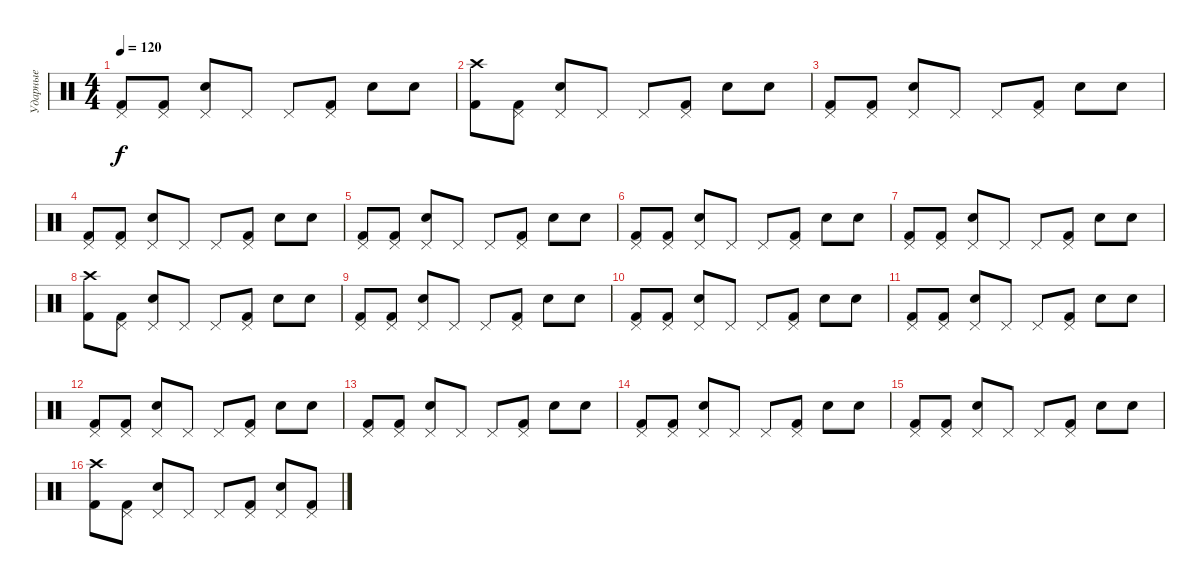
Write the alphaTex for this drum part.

\track ("Ударные" "Ударные") {instrument percussion}
\staff {score}
\articulation defaults
\ts (4 4)
\tempo 120
\clef neutral
\ks c
("Pedal Hi-Hat (hit)" "Kick (hit) 2").8{dy f} ("Pedal Hi-Hat (hit)" "Kick (hit) 2").8 ("Pedal Hi-Hat (hit)" "Snare (hit) 2").8 "Pedal Hi-Hat (hit)".8 "Pedal Hi-Hat (hit)".8 ("Pedal Hi-Hat (hit)" "Kick (hit) 2").8 "Snare (hit) 2".8 "Snare (hit) 2".8 |
("Crash high (hit)" "Kick (hit) 2").8 ("Pedal Hi-Hat (hit)" "Kick (hit) 2").8 ("Pedal Hi-Hat (hit)" "Snare (hit) 2").8 "Pedal Hi-Hat (hit)".8 "Pedal Hi-Hat (hit)".8 ("Pedal Hi-Hat (hit)" "Kick (hit) 2").8 "Snare (hit) 2".8 "Snare (hit) 2".8 |
("Pedal Hi-Hat (hit)" "Kick (hit) 2").8 ("Pedal Hi-Hat (hit)" "Kick (hit) 2").8 ("Pedal Hi-Hat (hit)" "Snare (hit) 2").8 "Pedal Hi-Hat (hit)".8 "Pedal Hi-Hat (hit)".8 ("Pedal Hi-Hat (hit)" "Kick (hit) 2").8 "Snare (hit) 2".8 "Snare (hit) 2".8 |
("Pedal Hi-Hat (hit)" "Kick (hit) 2").8 ("Pedal Hi-Hat (hit)" "Kick (hit) 2").8 ("Pedal Hi-Hat (hit)" "Snare (hit) 2").8 "Pedal Hi-Hat (hit)".8 "Pedal Hi-Hat (hit)".8 ("Pedal Hi-Hat (hit)" "Kick (hit) 2").8 "Snare (hit) 2".8 "Snare (hit) 2".8 |
("Pedal Hi-Hat (hit)" "Kick (hit) 2").8 ("Pedal Hi-Hat (hit)" "Kick (hit) 2").8 ("Pedal Hi-Hat (hit)" "Snare (hit) 2").8 "Pedal Hi-Hat (hit)".8 "Pedal Hi-Hat (hit)".8 ("Pedal Hi-Hat (hit)" "Kick (hit) 2").8 "Snare (hit) 2".8 "Snare (hit) 2".8 |
("Pedal Hi-Hat (hit)" "Kick (hit) 2").8 ("Pedal Hi-Hat (hit)" "Kick (hit) 2").8 ("Pedal Hi-Hat (hit)" "Snare (hit) 2").8 "Pedal Hi-Hat (hit)".8 "Pedal Hi-Hat (hit)".8 ("Pedal Hi-Hat (hit)" "Kick (hit) 2").8 "Snare (hit) 2".8 "Snare (hit) 2".8 |
("Pedal Hi-Hat (hit)" "Kick (hit) 2").8 ("Pedal Hi-Hat (hit)" "Kick (hit) 2").8 ("Pedal Hi-Hat (hit)" "Snare (hit) 2").8 "Pedal Hi-Hat (hit)".8 "Pedal Hi-Hat (hit)".8 ("Pedal Hi-Hat (hit)" "Kick (hit) 2").8 "Snare (hit) 2".8 "Snare (hit) 2".8 |
("Crash high (hit)" "Kick (hit) 2").8 ("Pedal Hi-Hat (hit)" "Kick (hit) 2").8 ("Pedal Hi-Hat (hit)" "Snare (hit) 2").8 "Pedal Hi-Hat (hit)".8 "Pedal Hi-Hat (hit)".8 ("Pedal Hi-Hat (hit)" "Kick (hit) 2").8 "Snare (hit) 2".8 "Snare (hit) 2".8 |
("Pedal Hi-Hat (hit)" "Kick (hit) 2").8 ("Pedal Hi-Hat (hit)" "Kick (hit) 2").8 ("Pedal Hi-Hat (hit)" "Snare (hit) 2").8 "Pedal Hi-Hat (hit)".8 "Pedal Hi-Hat (hit)".8 ("Pedal Hi-Hat (hit)" "Kick (hit) 2").8 "Snare (hit) 2".8 "Snare (hit) 2".8 |
("Pedal Hi-Hat (hit)" "Kick (hit) 2").8 ("Pedal Hi-Hat (hit)" "Kick (hit) 2").8 ("Pedal Hi-Hat (hit)" "Snare (hit) 2").8 "Pedal Hi-Hat (hit)".8 "Pedal Hi-Hat (hit)".8 ("Pedal Hi-Hat (hit)" "Kick (hit) 2").8 "Snare (hit) 2".8 "Snare (hit) 2".8 |
("Pedal Hi-Hat (hit)" "Kick (hit) 2").8 ("Pedal Hi-Hat (hit)" "Kick (hit) 2").8 ("Pedal Hi-Hat (hit)" "Snare (hit) 2").8 "Pedal Hi-Hat (hit)".8 "Pedal Hi-Hat (hit)".8 ("Pedal Hi-Hat (hit)" "Kick (hit) 2").8 "Snare (hit) 2".8 "Snare (hit) 2".8 |
("Pedal Hi-Hat (hit)" "Kick (hit) 2").8 ("Pedal Hi-Hat (hit)" "Kick (hit) 2").8 ("Pedal Hi-Hat (hit)" "Snare (hit) 2").8 "Pedal Hi-Hat (hit)".8 "Pedal Hi-Hat (hit)".8 ("Pedal Hi-Hat (hit)" "Kick (hit) 2").8 "Snare (hit) 2".8 "Snare (hit) 2".8 |
("Pedal Hi-Hat (hit)" "Kick (hit) 2").8 ("Pedal Hi-Hat (hit)" "Kick (hit) 2").8 ("Pedal Hi-Hat (hit)" "Snare (hit) 2").8 "Pedal Hi-Hat (hit)".8 "Pedal Hi-Hat (hit)".8 ("Pedal Hi-Hat (hit)" "Kick (hit) 2").8 "Snare (hit) 2".8 "Snare (hit) 2".8 |
("Pedal Hi-Hat (hit)" "Kick (hit) 2").8 ("Pedal Hi-Hat (hit)" "Kick (hit) 2").8 ("Pedal Hi-Hat (hit)" "Snare (hit) 2").8 "Pedal Hi-Hat (hit)".8 "Pedal Hi-Hat (hit)".8 ("Pedal Hi-Hat (hit)" "Kick (hit) 2").8 "Snare (hit) 2".8 "Snare (hit) 2".8 |
("Pedal Hi-Hat (hit)" "Kick (hit) 2").8 ("Pedal Hi-Hat (hit)" "Kick (hit) 2").8 ("Pedal Hi-Hat (hit)" "Snare (hit) 2").8 "Pedal Hi-Hat (hit)".8 "Pedal Hi-Hat (hit)".8 ("Pedal Hi-Hat (hit)" "Kick (hit) 2").8 "Snare (hit) 2".8 "Snare (hit) 2".8 |
("Crash high (hit)" "Kick (hit) 2").8 ("Pedal Hi-Hat (hit)" "Kick (hit) 2").8 ("Pedal Hi-Hat (hit)" "Snare (hit) 2").8 "Pedal Hi-Hat (hit)".8 "Pedal Hi-Hat (hit)".8 ("Pedal Hi-Hat (hit)" "Kick (hit) 2").8 ("Pedal Hi-Hat (hit)" "Snare (hit) 2").8 ("Pedal Hi-Hat (hit)" "Kick (hit) 2").8
